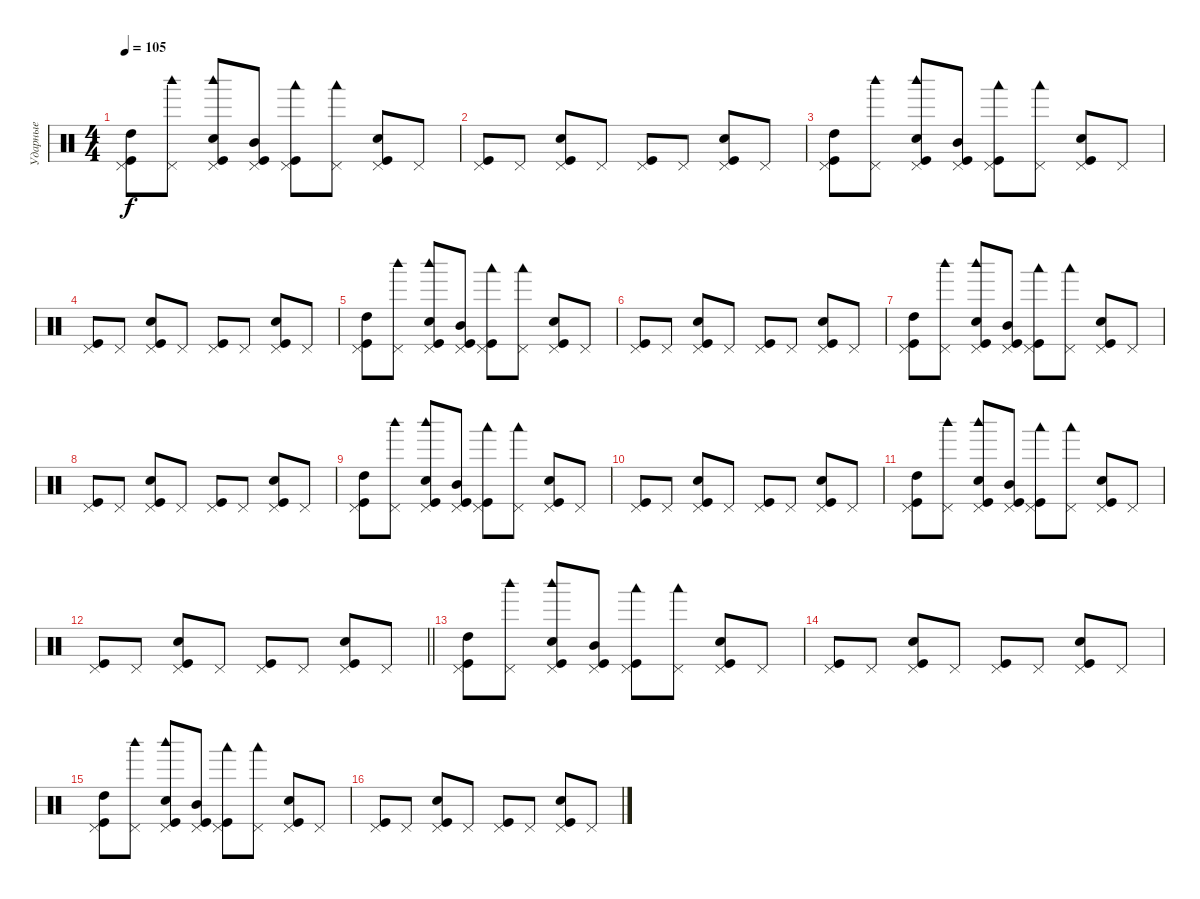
\track ("Ударные" "Ударные") {instrument percussion}
\staff {score}
\articulation defaults
\ts (4 4)
\tempo 105
\clef neutral
\ks c
("Pedal Hi-Hat (hit)" "Kick (hit)" "High Tom (hit)").8{dy f} ("Pedal Hi-Hat (hit)" "Woodblock high (hit)").8 ("Pedal Hi-Hat (hit)" "Kick (hit)" "Snare (hit) 2" "Woodblock high (hit)").8 ("Pedal Hi-Hat (hit)" "Kick (hit)" "Mid Tom (hit)").8 ("Pedal Hi-Hat (hit)" "Kick (hit)" "Woodblock low (hit)").8 ("Pedal Hi-Hat (hit)" "Woodblock low (hit)").8 ("Pedal Hi-Hat (hit)" "Kick (hit)" "Snare (hit) 2").8 "Pedal Hi-Hat (hit)".8 |
("Pedal Hi-Hat (hit)" "Kick (hit)").8 "Pedal Hi-Hat (hit)".8 ("Pedal Hi-Hat (hit)" "Kick (hit)" "Snare (hit) 2").8 "Pedal Hi-Hat (hit)".8 ("Pedal Hi-Hat (hit)" "Kick (hit)").8 "Pedal Hi-Hat (hit)".8 ("Pedal Hi-Hat (hit)" "Kick (hit)" "Snare (hit) 2").8 "Pedal Hi-Hat (hit)".8 |
("Pedal Hi-Hat (hit)" "Kick (hit)" "High Tom (hit)").8 ("Pedal Hi-Hat (hit)" "Woodblock high (hit)").8 ("Pedal Hi-Hat (hit)" "Kick (hit)" "Woodblock high (hit)" "Snare (hit) 2").8 ("Pedal Hi-Hat (hit)" "Kick (hit)" "Mid Tom (hit)").8 ("Pedal Hi-Hat (hit)" "Kick (hit)" "Woodblock low (hit)").8 ("Pedal Hi-Hat (hit)" "Woodblock low (hit)").8 ("Pedal Hi-Hat (hit)" "Kick (hit)" "Snare (hit) 2").8 "Pedal Hi-Hat (hit)".8 |
("Pedal Hi-Hat (hit)" "Kick (hit)").8 "Pedal Hi-Hat (hit)".8 ("Pedal Hi-Hat (hit)" "Kick (hit)" "Snare (hit) 2").8 "Pedal Hi-Hat (hit)".8 ("Pedal Hi-Hat (hit)" "Kick (hit)").8 "Pedal Hi-Hat (hit)".8 ("Pedal Hi-Hat (hit)" "Kick (hit)" "Snare (hit) 2").8 "Pedal Hi-Hat (hit)".8 |
("Pedal Hi-Hat (hit)" "Kick (hit)" "High Tom (hit)").8 ("Pedal Hi-Hat (hit)" "Woodblock high (hit)").8 ("Pedal Hi-Hat (hit)" "Kick (hit)" "Snare (hit) 2" "Woodblock high (hit)").8 ("Pedal Hi-Hat (hit)" "Kick (hit)" "Mid Tom (hit)").8 ("Pedal Hi-Hat (hit)" "Kick (hit)" "Woodblock low (hit)").8 ("Pedal Hi-Hat (hit)" "Woodblock low (hit)").8 ("Pedal Hi-Hat (hit)" "Kick (hit)" "Snare (hit) 2").8 "Pedal Hi-Hat (hit)".8 |
("Pedal Hi-Hat (hit)" "Kick (hit)").8 "Pedal Hi-Hat (hit)".8 ("Pedal Hi-Hat (hit)" "Kick (hit)" "Snare (hit) 2").8 "Pedal Hi-Hat (hit)".8 ("Pedal Hi-Hat (hit)" "Kick (hit)").8 "Pedal Hi-Hat (hit)".8 ("Pedal Hi-Hat (hit)" "Kick (hit)" "Snare (hit) 2").8 "Pedal Hi-Hat (hit)".8 |
("Pedal Hi-Hat (hit)" "Kick (hit)" "High Tom (hit)").8 ("Pedal Hi-Hat (hit)" "Woodblock high (hit)").8 ("Pedal Hi-Hat (hit)" "Kick (hit)" "Snare (hit) 2" "Woodblock high (hit)").8 ("Pedal Hi-Hat (hit)" "Kick (hit)" "Mid Tom (hit)").8 ("Pedal Hi-Hat (hit)" "Kick (hit)" "Woodblock low (hit)").8 ("Pedal Hi-Hat (hit)" "Woodblock low (hit)").8 ("Pedal Hi-Hat (hit)" "Kick (hit)" "Snare (hit) 2").8 "Pedal Hi-Hat (hit)".8 |
("Pedal Hi-Hat (hit)" "Kick (hit)").8 "Pedal Hi-Hat (hit)".8 ("Pedal Hi-Hat (hit)" "Kick (hit)" "Snare (hit) 2").8 "Pedal Hi-Hat (hit)".8 ("Pedal Hi-Hat (hit)" "Kick (hit)").8 "Pedal Hi-Hat (hit)".8 ("Pedal Hi-Hat (hit)" "Kick (hit)" "Snare (hit) 2").8 "Pedal Hi-Hat (hit)".8 |
("Pedal Hi-Hat (hit)" "Kick (hit)" "High Tom (hit)").8 ("Pedal Hi-Hat (hit)" "Woodblock high (hit)").8 ("Pedal Hi-Hat (hit)" "Kick (hit)" "Snare (hit) 2" "Woodblock high (hit)").8 ("Pedal Hi-Hat (hit)" "Kick (hit)" "Mid Tom (hit)").8 ("Pedal Hi-Hat (hit)" "Kick (hit)" "Woodblock low (hit)").8 ("Pedal Hi-Hat (hit)" "Woodblock low (hit)").8 ("Pedal Hi-Hat (hit)" "Kick (hit)" "Snare (hit) 2").8 "Pedal Hi-Hat (hit)".8 |
("Pedal Hi-Hat (hit)" "Kick (hit)").8 "Pedal Hi-Hat (hit)".8 ("Pedal Hi-Hat (hit)" "Kick (hit)" "Snare (hit) 2").8 "Pedal Hi-Hat (hit)".8 ("Pedal Hi-Hat (hit)" "Kick (hit)").8 "Pedal Hi-Hat (hit)".8 ("Pedal Hi-Hat (hit)" "Kick (hit)" "Snare (hit) 2").8 "Pedal Hi-Hat (hit)".8 |
("Pedal Hi-Hat (hit)" "Kick (hit)" "High Tom (hit)").8 ("Pedal Hi-Hat (hit)" "Woodblock high (hit)").8 ("Pedal Hi-Hat (hit)" "Kick (hit)" "Snare (hit) 2" "Woodblock high (hit)").8 ("Pedal Hi-Hat (hit)" "Kick (hit)" "Mid Tom (hit)").8 ("Pedal Hi-Hat (hit)" "Kick (hit)" "Woodblock low (hit)").8 ("Pedal Hi-Hat (hit)" "Woodblock low (hit)").8 ("Pedal Hi-Hat (hit)" "Kick (hit)" "Snare (hit) 2").8 "Pedal Hi-Hat (hit)".8 |
\barLineRight lightlight
("Pedal Hi-Hat (hit)" "Kick (hit)").8 "Pedal Hi-Hat (hit)".8 ("Pedal Hi-Hat (hit)" "Kick (hit)" "Snare (hit) 2").8 "Pedal Hi-Hat (hit)".8 ("Pedal Hi-Hat (hit)" "Kick (hit)").8 "Pedal Hi-Hat (hit)".8 ("Pedal Hi-Hat (hit)" "Kick (hit)" "Snare (hit) 2").8 "Pedal Hi-Hat (hit)".8 |
\section ("" "")
("Pedal Hi-Hat (hit)" "Kick (hit)" "High Tom (hit)").8 ("Pedal Hi-Hat (hit)" "Woodblock high (hit)").8 ("Pedal Hi-Hat (hit)" "Kick (hit)" "Snare (hit) 2" "Woodblock high (hit)").8 ("Pedal Hi-Hat (hit)" "Kick (hit)" "Mid Tom (hit)").8 ("Pedal Hi-Hat (hit)" "Kick (hit)" "Woodblock low (hit)").8 ("Pedal Hi-Hat (hit)" "Woodblock low (hit)").8 ("Pedal Hi-Hat (hit)" "Kick (hit)" "Snare (hit) 2").8 "Pedal Hi-Hat (hit)".8 |
("Pedal Hi-Hat (hit)" "Kick (hit)").8 "Pedal Hi-Hat (hit)".8 ("Pedal Hi-Hat (hit)" "Kick (hit)" "Snare (hit) 2").8 "Pedal Hi-Hat (hit)".8 ("Pedal Hi-Hat (hit)" "Kick (hit)").8 "Pedal Hi-Hat (hit)".8 ("Pedal Hi-Hat (hit)" "Kick (hit)" "Snare (hit) 2").8 "Pedal Hi-Hat (hit)".8 |
("Pedal Hi-Hat (hit)" "Kick (hit)" "High Tom (hit)").8 ("Pedal Hi-Hat (hit)" "Woodblock high (hit)").8 ("Pedal Hi-Hat (hit)" "Kick (hit)" "Snare (hit) 2" "Woodblock high (hit)").8 ("Pedal Hi-Hat (hit)" "Kick (hit)" "Mid Tom (hit)").8 ("Pedal Hi-Hat (hit)" "Kick (hit)" "Woodblock low (hit)").8 ("Pedal Hi-Hat (hit)" "Woodblock low (hit)").8 ("Pedal Hi-Hat (hit)" "Kick (hit)" "Snare (hit) 2").8 "Pedal Hi-Hat (hit)".8 |
("Pedal Hi-Hat (hit)" "Kick (hit)").8 "Pedal Hi-Hat (hit)".8 ("Pedal Hi-Hat (hit)" "Kick (hit)" "Snare (hit) 2").8 "Pedal Hi-Hat (hit)".8 ("Pedal Hi-Hat (hit)" "Kick (hit)").8 "Pedal Hi-Hat (hit)".8 ("Pedal Hi-Hat (hit)" "Kick (hit)" "Snare (hit) 2").8 "Pedal Hi-Hat (hit)".8
